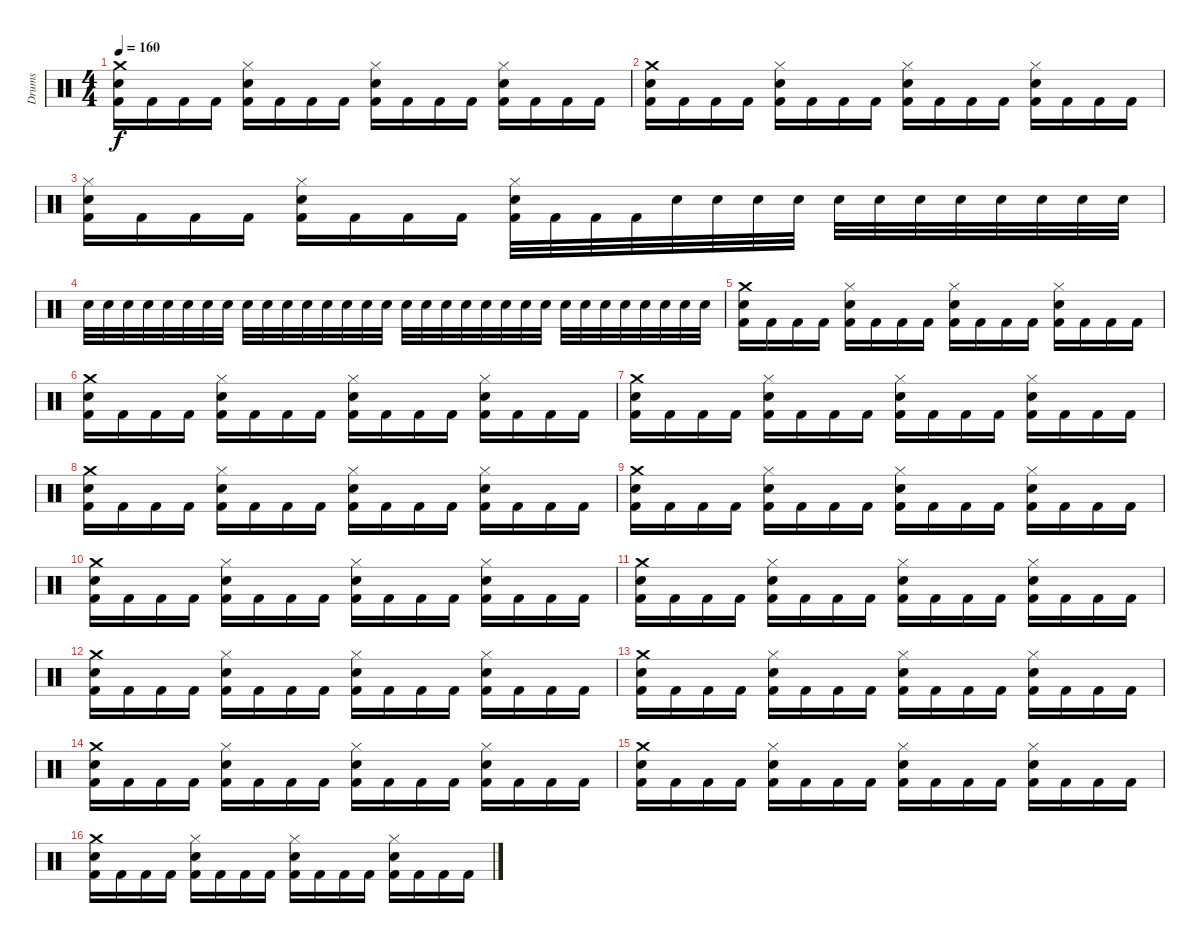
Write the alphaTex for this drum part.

\track ("Drums" "Drums") {instrument percussion}
\staff {score}
\articulation defaults
\ts (4 4)
\tempo 160
\clef neutral
\ks c
("Crash medium (hit)" "Snare (hit) 2" "Kick (hit) 2").16{dy f} "Kick (hit) 2".16 "Kick (hit) 2".16 "Kick (hit) 2".16 ("Hi-Hat (closed)" "Snare (hit) 2" "Kick (hit) 2").16 "Kick (hit) 2".16 "Kick (hit) 2".16 "Kick (hit) 2".16 ("Hi-Hat (closed)" "Snare (hit) 2" "Kick (hit) 2").16 "Kick (hit) 2".16 "Kick (hit) 2".16 "Kick (hit) 2".16 ("Hi-Hat (closed)" "Snare (hit) 2" "Kick (hit) 2").16 "Kick (hit) 2".16 "Kick (hit) 2".16 "Kick (hit) 2".16 |
("Crash medium (hit)" "Snare (hit) 2" "Kick (hit) 2").16 "Kick (hit) 2".16 "Kick (hit) 2".16 "Kick (hit) 2".16 ("Hi-Hat (closed)" "Snare (hit) 2" "Kick (hit) 2").16 "Kick (hit) 2".16 "Kick (hit) 2".16 "Kick (hit) 2".16 ("Hi-Hat (closed)" "Snare (hit) 2" "Kick (hit) 2").16 "Kick (hit) 2".16 "Kick (hit) 2".16 "Kick (hit) 2".16 ("Hi-Hat (closed)" "Snare (hit) 2" "Kick (hit) 2").16 "Kick (hit) 2".16 "Kick (hit) 2".16 "Kick (hit) 2".16 |
("Hi-Hat (closed)" "Snare (hit) 2" "Kick (hit) 2").16 "Kick (hit) 2".16 "Kick (hit) 2".16 "Kick (hit) 2".16 ("Hi-Hat (closed)" "Snare (hit) 2" "Kick (hit) 2").16 "Kick (hit) 2".16 "Kick (hit) 2".16 "Kick (hit) 2".16 ("Hi-Hat (closed)" "Snare (hit) 2" "Kick (hit) 2").32 "Kick (hit) 2".32 "Kick (hit) 2".32 "Kick (hit) 2".32 "Electric Snare (hit)".32 "Electric Snare (hit)".32 "Electric Snare (hit)".32 "Electric Snare (hit)".32 "Electric Snare (hit)".32 "Electric Snare (hit)".32 "Electric Snare (hit)".32 "Electric Snare (hit)".32 "Electric Snare (hit)".32 "Electric Snare (hit)".32 "Electric Snare (hit)".32 "Electric Snare (hit)".32 |
"Electric Snare (hit)".32 "Electric Snare (hit)".32 "Electric Snare (hit)".32 "Electric Snare (hit)".32 "Electric Snare (hit)".32 "Electric Snare (hit)".32 "Electric Snare (hit)".32 "Electric Snare (hit)".32 "Electric Snare (hit)".32 "Electric Snare (hit)".32 "Electric Snare (hit)".32 "Electric Snare (hit)".32 "Electric Snare (hit)".32 "Electric Snare (hit)".32 "Electric Snare (hit)".32 "Electric Snare (hit)".32 "Electric Snare (hit)".32 "Electric Snare (hit)".32 "Electric Snare (hit)".32 "Electric Snare (hit)".32 "Electric Snare (hit)".32 "Electric Snare (hit)".32 "Electric Snare (hit)".32 "Electric Snare (hit)".32 "Electric Snare (hit)".32 "Electric Snare (hit)".32 "Electric Snare (hit)".32 "Electric Snare (hit)".32 "Electric Snare (hit)".32 "Electric Snare (hit)".32 "Electric Snare (hit)".32 "Electric Snare (hit)".32 |
("Crash medium (hit)" "Snare (hit) 2" "Kick (hit) 2").16 "Kick (hit) 2".16 "Kick (hit) 2".16 "Kick (hit) 2".16 ("Hi-Hat (closed)" "Snare (hit) 2" "Kick (hit) 2").16 "Kick (hit) 2".16 "Kick (hit) 2".16 "Kick (hit) 2".16 ("Hi-Hat (closed)" "Snare (hit) 2" "Kick (hit) 2").16 "Kick (hit) 2".16 "Kick (hit) 2".16 "Kick (hit) 2".16 ("Hi-Hat (closed)" "Snare (hit) 2" "Kick (hit) 2").16 "Kick (hit) 2".16 "Kick (hit) 2".16 "Kick (hit) 2".16 |
("Crash medium (hit)" "Snare (hit) 2" "Kick (hit) 2").16 "Kick (hit) 2".16 "Kick (hit) 2".16 "Kick (hit) 2".16 ("Hi-Hat (closed)" "Snare (hit) 2" "Kick (hit) 2").16 "Kick (hit) 2".16 "Kick (hit) 2".16 "Kick (hit) 2".16 ("Hi-Hat (closed)" "Snare (hit) 2" "Kick (hit) 2").16 "Kick (hit) 2".16 "Kick (hit) 2".16 "Kick (hit) 2".16 ("Hi-Hat (closed)" "Snare (hit) 2" "Kick (hit) 2").16 "Kick (hit) 2".16 "Kick (hit) 2".16 "Kick (hit) 2".16 |
("Crash medium (hit)" "Snare (hit) 2" "Kick (hit) 2").16 "Kick (hit) 2".16 "Kick (hit) 2".16 "Kick (hit) 2".16 ("Hi-Hat (closed)" "Snare (hit) 2" "Kick (hit) 2").16 "Kick (hit) 2".16 "Kick (hit) 2".16 "Kick (hit) 2".16 ("Hi-Hat (closed)" "Snare (hit) 2" "Kick (hit) 2").16 "Kick (hit) 2".16 "Kick (hit) 2".16 "Kick (hit) 2".16 ("Hi-Hat (closed)" "Snare (hit) 2" "Kick (hit) 2").16 "Kick (hit) 2".16 "Kick (hit) 2".16 "Kick (hit) 2".16 |
("Crash medium (hit)" "Snare (hit) 2" "Kick (hit) 2").16 "Kick (hit) 2".16 "Kick (hit) 2".16 "Kick (hit) 2".16 ("Hi-Hat (closed)" "Snare (hit) 2" "Kick (hit) 2").16 "Kick (hit) 2".16 "Kick (hit) 2".16 "Kick (hit) 2".16 ("Hi-Hat (closed)" "Snare (hit) 2" "Kick (hit) 2").16 "Kick (hit) 2".16 "Kick (hit) 2".16 "Kick (hit) 2".16 ("Hi-Hat (closed)" "Snare (hit) 2" "Kick (hit) 2").16 "Kick (hit) 2".16 "Kick (hit) 2".16 "Kick (hit) 2".16 |
("Crash medium (hit)" "Snare (hit) 2" "Kick (hit) 2").16 "Kick (hit) 2".16 "Kick (hit) 2".16 "Kick (hit) 2".16 ("Hi-Hat (closed)" "Snare (hit) 2" "Kick (hit) 2").16 "Kick (hit) 2".16 "Kick (hit) 2".16 "Kick (hit) 2".16 ("Hi-Hat (closed)" "Snare (hit) 2" "Kick (hit) 2").16 "Kick (hit) 2".16 "Kick (hit) 2".16 "Kick (hit) 2".16 ("Hi-Hat (closed)" "Snare (hit) 2" "Kick (hit) 2").16 "Kick (hit) 2".16 "Kick (hit) 2".16 "Kick (hit) 2".16 |
("Crash medium (hit)" "Snare (hit) 2" "Kick (hit) 2").16 "Kick (hit) 2".16 "Kick (hit) 2".16 "Kick (hit) 2".16 ("Hi-Hat (closed)" "Snare (hit) 2" "Kick (hit) 2").16 "Kick (hit) 2".16 "Kick (hit) 2".16 "Kick (hit) 2".16 ("Hi-Hat (closed)" "Snare (hit) 2" "Kick (hit) 2").16 "Kick (hit) 2".16 "Kick (hit) 2".16 "Kick (hit) 2".16 ("Hi-Hat (closed)" "Snare (hit) 2" "Kick (hit) 2").16 "Kick (hit) 2".16 "Kick (hit) 2".16 "Kick (hit) 2".16 |
("Crash medium (hit)" "Snare (hit) 2" "Kick (hit) 2").16 "Kick (hit) 2".16 "Kick (hit) 2".16 "Kick (hit) 2".16 ("Hi-Hat (closed)" "Snare (hit) 2" "Kick (hit) 2").16 "Kick (hit) 2".16 "Kick (hit) 2".16 "Kick (hit) 2".16 ("Hi-Hat (closed)" "Snare (hit) 2" "Kick (hit) 2").16 "Kick (hit) 2".16 "Kick (hit) 2".16 "Kick (hit) 2".16 ("Hi-Hat (closed)" "Snare (hit) 2" "Kick (hit) 2").16 "Kick (hit) 2".16 "Kick (hit) 2".16 "Kick (hit) 2".16 |
("Crash medium (hit)" "Snare (hit) 2" "Kick (hit) 2").16 "Kick (hit) 2".16 "Kick (hit) 2".16 "Kick (hit) 2".16 ("Hi-Hat (closed)" "Snare (hit) 2" "Kick (hit) 2").16 "Kick (hit) 2".16 "Kick (hit) 2".16 "Kick (hit) 2".16 ("Hi-Hat (closed)" "Snare (hit) 2" "Kick (hit) 2").16 "Kick (hit) 2".16 "Kick (hit) 2".16 "Kick (hit) 2".16 ("Hi-Hat (closed)" "Snare (hit) 2" "Kick (hit) 2").16 "Kick (hit) 2".16 "Kick (hit) 2".16 "Kick (hit) 2".16 |
("Crash medium (hit)" "Snare (hit) 2" "Kick (hit) 2").16 "Kick (hit) 2".16 "Kick (hit) 2".16 "Kick (hit) 2".16 ("Hi-Hat (closed)" "Snare (hit) 2" "Kick (hit) 2").16 "Kick (hit) 2".16 "Kick (hit) 2".16 "Kick (hit) 2".16 ("Hi-Hat (closed)" "Snare (hit) 2" "Kick (hit) 2").16 "Kick (hit) 2".16 "Kick (hit) 2".16 "Kick (hit) 2".16 ("Hi-Hat (closed)" "Snare (hit) 2" "Kick (hit) 2").16 "Kick (hit) 2".16 "Kick (hit) 2".16 "Kick (hit) 2".16 |
("Crash medium (hit)" "Snare (hit) 2" "Kick (hit) 2").16 "Kick (hit) 2".16 "Kick (hit) 2".16 "Kick (hit) 2".16 ("Hi-Hat (closed)" "Snare (hit) 2" "Kick (hit) 2").16 "Kick (hit) 2".16 "Kick (hit) 2".16 "Kick (hit) 2".16 ("Hi-Hat (closed)" "Snare (hit) 2" "Kick (hit) 2").16 "Kick (hit) 2".16 "Kick (hit) 2".16 "Kick (hit) 2".16 ("Hi-Hat (closed)" "Snare (hit) 2" "Kick (hit) 2").16 "Kick (hit) 2".16 "Kick (hit) 2".16 "Kick (hit) 2".16 |
("Crash medium (hit)" "Snare (hit) 2" "Kick (hit) 2").16 "Kick (hit) 2".16 "Kick (hit) 2".16 "Kick (hit) 2".16 ("Hi-Hat (closed)" "Snare (hit) 2" "Kick (hit) 2").16 "Kick (hit) 2".16 "Kick (hit) 2".16 "Kick (hit) 2".16 ("Hi-Hat (closed)" "Snare (hit) 2" "Kick (hit) 2").16 "Kick (hit) 2".16 "Kick (hit) 2".16 "Kick (hit) 2".16 ("Hi-Hat (closed)" "Snare (hit) 2" "Kick (hit) 2").16 "Kick (hit) 2".16 "Kick (hit) 2".16 "Kick (hit) 2".16 |
("Crash medium (hit)" "Snare (hit) 2" "Kick (hit) 2").16 "Kick (hit) 2".16 "Kick (hit) 2".16 "Kick (hit) 2".16 ("Hi-Hat (closed)" "Snare (hit) 2" "Kick (hit) 2").16 "Kick (hit) 2".16 "Kick (hit) 2".16 "Kick (hit) 2".16 ("Hi-Hat (closed)" "Snare (hit) 2" "Kick (hit) 2").16 "Kick (hit) 2".16 "Kick (hit) 2".16 "Kick (hit) 2".16 ("Hi-Hat (closed)" "Snare (hit) 2" "Kick (hit) 2").16 "Kick (hit) 2".16 "Kick (hit) 2".16 "Kick (hit) 2".16
